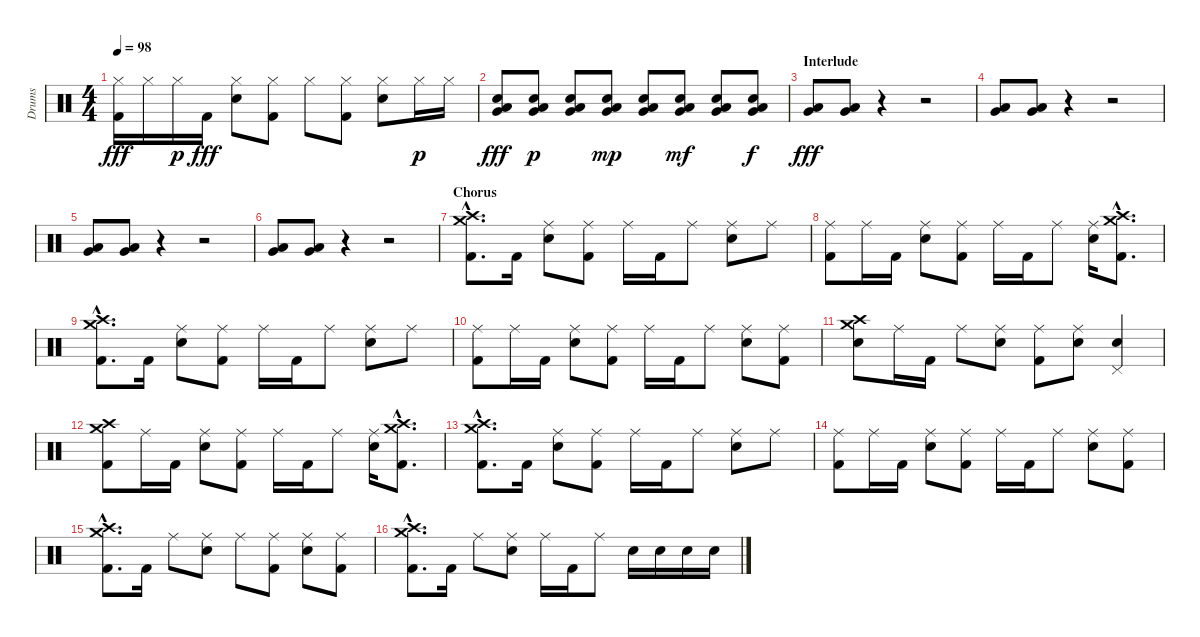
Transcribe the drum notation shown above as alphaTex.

\track ("Drums" "Drums") {instrument percussion}
\staff {score}
\articulation defaults
\ts (4 4)
\tempo 98
\clef neutral
\ks c
("Hi-Hat (closed)" "Kick (hit) 2").16{dy fff} "Hi-Hat (closed)".16 "Hi-Hat (closed)".16{dy p} "Kick (hit) 2".16{dy fff} ("Hi-Hat (closed)" "Electric Snare (hit)").8 ("Hi-Hat (closed)" "Kick (hit) 2").8 "Hi-Hat (closed)".8 ("Hi-Hat (closed)" "Kick (hit) 2").8 ("Hi-Hat (closed)" "Electric Snare (hit)").8 "Hi-Hat (closed)".16{dy p} "Hi-Hat (closed)".16 |
("Low Tom (hit)" "Very Low Tom (hit)" "Electric Snare (hit)").8{dy fff} ("Low Tom (hit)" "Very Low Tom (hit)" "Electric Snare (hit)").8{dy p} ("Low Tom (hit)" "Very Low Tom (hit)" "Electric Snare (hit)").8 ("Low Tom (hit)" "Very Low Tom (hit)" "Electric Snare (hit)").8{dy mp} ("Low Tom (hit)" "Very Low Tom (hit)" "Electric Snare (hit)").8 ("Low Tom (hit)" "Very Low Tom (hit)" "Electric Snare (hit)").8{dy mf} ("Low Tom (hit)" "Very Low Tom (hit)" "Electric Snare (hit)").8 ("Low Tom (hit)" "Very Low Tom (hit)" "Electric Snare (hit)").8{dy f} |
\section ("" "Interlude")
("Low Tom (hit)" "Very Low Tom (hit)").8{dy fff} ("Low Tom (hit)" "Very Low Tom (hit)").8 r.4 r.2 |
("Low Tom (hit)" "Very Low Tom (hit)").8 ("Low Tom (hit)" "Very Low Tom (hit)").8 r.4 r.2 |
("Low Tom (hit)" "Very Low Tom (hit)").8 ("Low Tom (hit)" "Very Low Tom (hit)").8 r.4 r.2 |
("Low Tom (hit)" "Very Low Tom (hit)").8 ("Low Tom (hit)" "Very Low Tom (hit)").8 r.4 r.2 |
\section ("" "Chorus")
("Crash high (hit)"{hac} "Crash medium (hit)"{hac} "Kick (hit) 2"{hac}).8{d} "Kick (hit) 2".16 ("Ride (middle)" "Electric Snare (hit)").8 ("Ride (middle)" "Kick (hit) 2").8 "Ride (middle)".16 "Kick (hit) 2".16 "Ride (middle)".8 ("Ride (middle)" "Electric Snare (hit)").8 "Ride (middle)".8 |
("Ride (middle)" "Kick (hit) 2").8 "Ride (middle)".16 "Kick (hit) 2".16 ("Ride (middle)" "Electric Snare (hit)").8 ("Ride (middle)" "Kick (hit) 2").8 "Ride (middle)".16 "Kick (hit) 2".16 "Ride (middle)".8 ("Ride (middle)" "Electric Snare (hit)").16 ("Crash high (hit)"{hac} "Crash medium (hit)"{hac} "Kick (hit) 2"{hac}).8{d} |
("Crash high (hit)"{hac} "Crash medium (hit)"{hac} "Kick (hit) 2"{hac}).8{d} "Kick (hit) 2".16 ("Ride (middle)" "Electric Snare (hit)").8 ("Ride (middle)" "Kick (hit) 2").8 "Ride (middle)".16 "Kick (hit) 2".16 "Ride (middle)".8 ("Ride (middle)" "Electric Snare (hit)").8 "Ride (middle)".8 |
("Ride (middle)" "Kick (hit) 2").8 "Ride (middle)".16 "Kick (hit) 2".16 ("Ride (middle)" "Electric Snare (hit)").8 ("Ride (middle)" "Kick (hit) 2").8 "Ride (middle)".16 "Kick (hit) 2".16 "Ride (middle)".8 ("Ride (middle)" "Electric Snare (hit)").8 ("Ride (middle)" "Kick (hit) 2").8 |
("Crash high (hit)" "Crash medium (hit)" "Electric Snare (hit)").8 "Ride (middle)".16 "Kick (hit) 2".16 "Ride (middle)".8 ("Ride (middle)" "Electric Snare (hit)").8 ("Ride (middle)" "Kick (hit) 2").8 ("Ride (middle)" "Electric Snare (hit)").8 ("Pedal Hi-Hat (hit)" "Electric Snare (hit)").4 |
("Crash high (hit)" "Crash medium (hit)" "Kick (hit) 2").8 "Ride (middle)".16 "Kick (hit) 2".16 ("Ride (middle)" "Electric Snare (hit)").8 ("Ride (middle)" "Kick (hit) 2").8 "Ride (middle)".16 "Kick (hit) 2".16 "Ride (middle)".8 ("Ride (middle)" "Electric Snare (hit)").16 ("Crash high (hit)"{hac} "Crash medium (hit)"{hac} "Kick (hit) 2"{hac}).8{d} |
("Crash high (hit)"{hac} "Crash medium (hit)"{hac} "Kick (hit) 2"{hac}).8{d} "Kick (hit) 2".16 ("Ride (middle)" "Electric Snare (hit)").8 ("Ride (middle)" "Kick (hit) 2").8 "Ride (middle)".16 "Kick (hit) 2".16 "Ride (middle)".8 ("Ride (middle)" "Electric Snare (hit)").8 "Ride (middle)".8 |
("Ride (middle)" "Kick (hit) 2").8 "Ride (middle)".16 "Kick (hit) 2".16 ("Ride (middle)" "Electric Snare (hit)").8 ("Ride (middle)" "Kick (hit) 2").8 "Ride (middle)".16 "Kick (hit) 2".16 "Ride (middle)".8 ("Ride (middle)" "Electric Snare (hit)").8 ("Ride (middle)" "Kick (hit) 2").8 |
("Crash high (hit)"{hac} "Crash medium (hit)"{hac} "Kick (hit) 2"{hac}).8{d} "Kick (hit) 2".16 "Ride (middle)".8 ("Ride (middle)" "Electric Snare (hit)").8 "Ride (middle)".8 ("Ride (middle)" "Kick (hit) 2").8 ("Ride (middle)" "Electric Snare (hit)").8 ("Ride (middle)" "Kick (hit) 2").8 |
("Crash high (hit)"{hac} "Crash medium (hit)"{hac} "Kick (hit) 2"{hac}).8{d} "Kick (hit) 2".16 "Ride (middle)".8 ("Ride (middle)" "Electric Snare (hit)").8 "Ride (middle)".16 "Kick (hit) 2".16 "Ride (middle)".8 "Electric Snare (hit)".16 "Electric Snare (hit)".16 "Electric Snare (hit)".16 "Electric Snare (hit)".16
